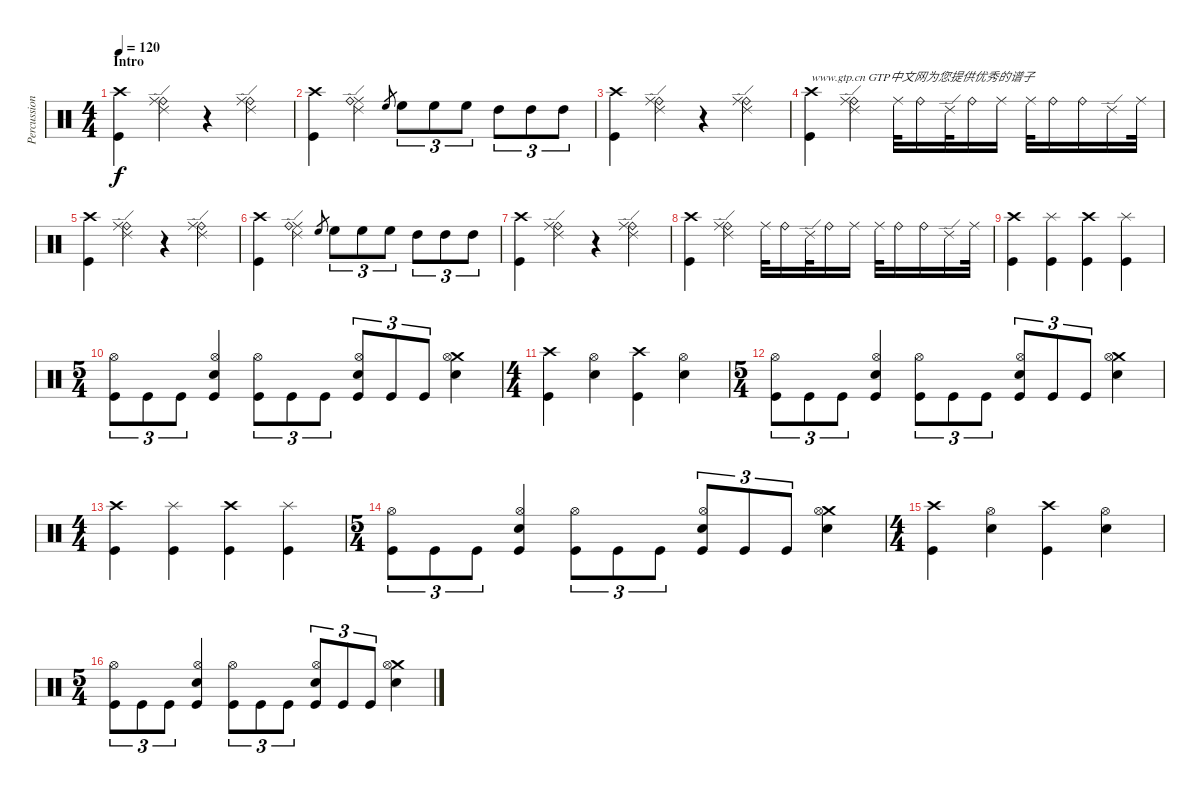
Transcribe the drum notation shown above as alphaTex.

\track ("Percussion" "Percussion") {instrument percussion}
\staff {score}
\articulation defaults
\ts (4 4)
\section ("" "Intro")
\tempo 120
\clef neutral
\ks c
("Crash high (hit)" "Kick (hit)").4{dy f} ("Ride (edge) 2" "Ride (bell)" "Ride (middle)").4 r.4 ("Ride (edge) 2" "Ride (bell)" "Ride (middle)").4 |
("Crash high (hit)" "Kick (hit)").4 ("Ride (edge) 2" "Ride (middle)" "Ride (bell)").4 "High Floor Tom (hit)".8{gr} "High Floor Tom (hit)".8{tu (3 2)} "High Floor Tom (hit)".8{tu (3 2)} "High Floor Tom (hit)".8{tu (3 2)} "High Tom (hit)".8{tu (3 2)} "High Tom (hit)".8{tu (3 2)} "High Tom (hit)".8{tu (3 2)} |
("Crash high (hit)" "Kick (hit)").4 ("Ride (edge) 2" "Ride (bell)" "Ride (middle)").4 r.4 ("Ride (edge) 2" "Ride (bell)" "Ride (middle)").4 |
("Crash high (hit)" "Kick (hit)").4{txt "www.gtp.cn GTP中文网为您提供优秀的谱子"} ("Ride (edge) 2" "Ride (bell)" "Ride (middle)").4 "Ride (middle)".32 "Ride (bell)".16 "Ride (edge) 2".32 "Ride (bell)".16 "Ride (middle)".16 "Ride (middle)".32 "Ride (bell)".16 "Ride (bell)".16 "Ride (edge) 2".16 "Ride (middle)".32 |
("Crash high (hit)" "Kick (hit)").4 ("Ride (edge) 2" "Ride (bell)" "Ride (middle)").4 r.4 ("Ride (edge) 2" "Ride (bell)" "Ride (middle)").4 |
("Crash high (hit)" "Kick (hit)").4 ("Ride (edge) 2" "Ride (middle)" "Ride (bell)").4 "High Floor Tom (hit)".8{gr} "High Floor Tom (hit)".8{tu (3 2)} "High Floor Tom (hit)".8{tu (3 2)} "High Floor Tom (hit)".8{tu (3 2)} "High Tom (hit)".8{tu (3 2)} "High Tom (hit)".8{tu (3 2)} "High Tom (hit)".8{tu (3 2)} |
("Crash high (hit)" "Kick (hit)").4 ("Ride (edge) 2" "Ride (bell)" "Ride (middle)").4 r.4 ("Ride (edge) 2" "Ride (bell)" "Ride (middle)").4 |
("Crash high (hit)" "Kick (hit)").4 ("Ride (edge) 2" "Ride (bell)" "Ride (middle)").4 "Ride (middle)".32 "Ride (bell)".16 "Ride (edge) 2".32 "Ride (bell)".16 "Ride (middle)".16 "Ride (middle)".32 "Ride (bell)".16 "Ride (bell)".16 "Ride (edge) 2".16 "Ride (middle)".32 |
("Crash high (hit)" "Kick (hit)").4 ("Splash (hit)" "Kick (hit)").4 ("Crash high (hit)" "Kick (hit)").4 ("Splash (hit)" "Kick (hit)").4 |
\ts (5 4)
("Hi-Hat (open)" "Kick (hit)").8{tu (3 2)} "Kick (hit)".8{tu (3 2)} "Kick (hit)".8{tu (3 2)} ("Hi-Hat (open)" "Snare (hit) 2" "Kick (hit)").4 ("Hi-Hat (open)" "Kick (hit)").8{tu (3 2)} "Kick (hit)".8{tu (3 2)} "Kick (hit)".8{tu (3 2)} ("Hi-Hat (open)" "Snare (hit) 2" "Kick (hit)").8{tu (3 2)} "Kick (hit)".8{tu (3 2)} "Kick (hit)".8{tu (3 2)} ("Crash medium (hit)" "Hi-Hat (open)" "Snare (hit) 2").4 |
\ts (4 4)
("Crash high (hit)" "Kick (hit)").4 ("Hi-Hat (open)" "Snare (hit) 2").4 ("Crash high (hit)" "Kick (hit)").4 ("Hi-Hat (open)" "Snare (hit) 2").4 |
\ts (5 4)
("Hi-Hat (open)" "Kick (hit)").8{tu (3 2)} "Kick (hit)".8{tu (3 2)} "Kick (hit)".8{tu (3 2)} ("Hi-Hat (open)" "Snare (hit) 2" "Kick (hit)").4 ("Hi-Hat (open)" "Kick (hit)").8{tu (3 2)} "Kick (hit)".8{tu (3 2)} "Kick (hit)".8{tu (3 2)} ("Hi-Hat (open)" "Snare (hit) 2" "Kick (hit)").8{tu (3 2)} "Kick (hit)".8{tu (3 2)} "Kick (hit)".8{tu (3 2)} ("Crash medium (hit)" "Hi-Hat (open)" "Snare (hit) 2").4 |
\ts (4 4)
("Crash high (hit)" "Kick (hit)").4 ("Splash (hit)" "Kick (hit)").4 ("Crash high (hit)" "Kick (hit)").4 ("Splash (hit)" "Kick (hit)").4 |
\ts (5 4)
("Hi-Hat (open)" "Kick (hit)").8{tu (3 2)} "Kick (hit)".8{tu (3 2)} "Kick (hit)".8{tu (3 2)} ("Hi-Hat (open)" "Snare (hit) 2" "Kick (hit)").4 ("Hi-Hat (open)" "Kick (hit)").8{tu (3 2)} "Kick (hit)".8{tu (3 2)} "Kick (hit)".8{tu (3 2)} ("Hi-Hat (open)" "Snare (hit) 2" "Kick (hit)").8{tu (3 2)} "Kick (hit)".8{tu (3 2)} "Kick (hit)".8{tu (3 2)} ("Crash medium (hit)" "Hi-Hat (open)" "Snare (hit) 2").4 |
\ts (4 4)
("Crash high (hit)" "Kick (hit)").4 ("Hi-Hat (open)" "Snare (hit) 2").4 ("Crash high (hit)" "Kick (hit)").4 ("Hi-Hat (open)" "Snare (hit) 2").4 |
\ts (5 4)
("Hi-Hat (open)" "Kick (hit)").8{tu (3 2)} "Kick (hit)".8{tu (3 2)} "Kick (hit)".8{tu (3 2)} ("Hi-Hat (open)" "Snare (hit) 2" "Kick (hit)").4 ("Hi-Hat (open)" "Kick (hit)").8{tu (3 2)} "Kick (hit)".8{tu (3 2)} "Kick (hit)".8{tu (3 2)} ("Hi-Hat (open)" "Snare (hit) 2" "Kick (hit)").8{tu (3 2)} "Kick (hit)".8{tu (3 2)} "Kick (hit)".8{tu (3 2)} ("Crash medium (hit)" "Hi-Hat (open)" "Snare (hit) 2").4
